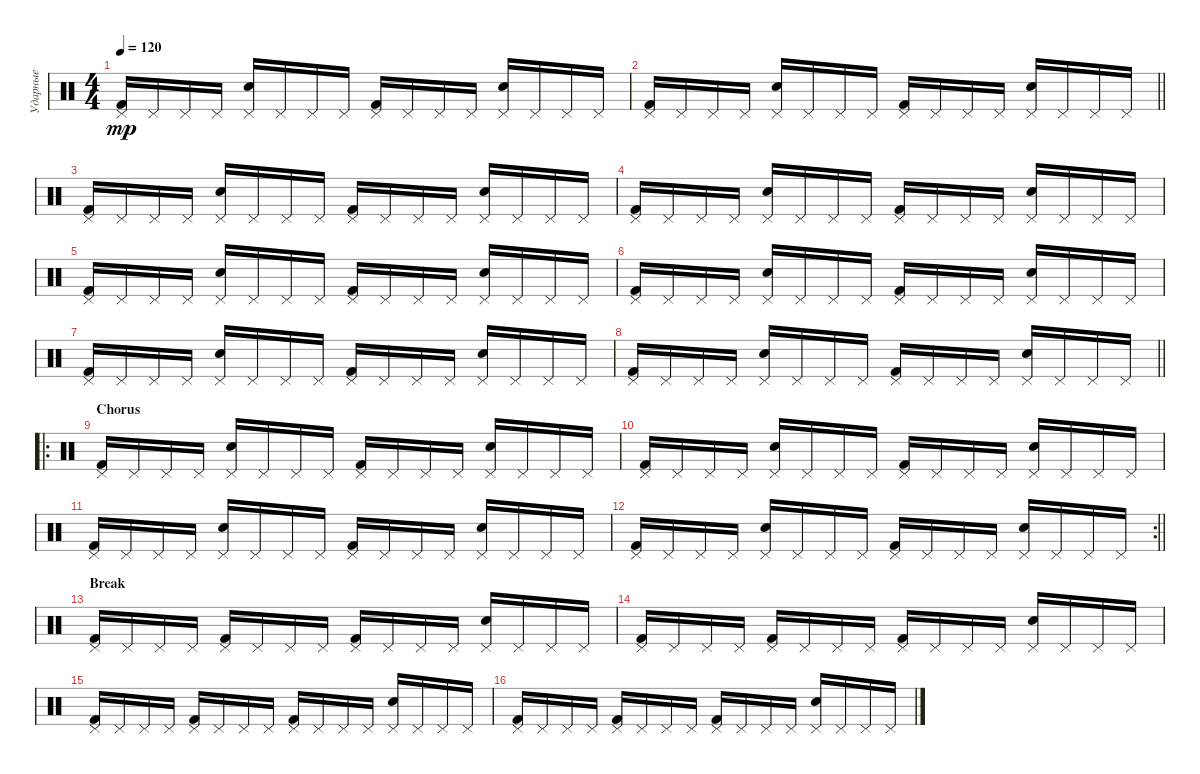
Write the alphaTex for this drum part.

\track ("Ударные" "Ударные") {instrument percussion}
\staff {score}
\articulation defaults
\ts (4 4)
\tempo 120
\clef neutral
\ks c
("Pedal Hi-Hat (hit)" "Kick (hit) 2").16{dy mp} "Pedal Hi-Hat (hit)".16 "Pedal Hi-Hat (hit)".16 "Pedal Hi-Hat (hit)".16 ("Pedal Hi-Hat (hit)" "Snare (hit) 2").16 "Pedal Hi-Hat (hit)".16 "Pedal Hi-Hat (hit)".16 "Pedal Hi-Hat (hit)".16 ("Pedal Hi-Hat (hit)" "Kick (hit) 2").16 "Pedal Hi-Hat (hit)".16 "Pedal Hi-Hat (hit)".16 "Pedal Hi-Hat (hit)".16 ("Pedal Hi-Hat (hit)" "Snare (hit) 2").16 "Pedal Hi-Hat (hit)".16 "Pedal Hi-Hat (hit)".16 "Pedal Hi-Hat (hit)".16 |
\barLineRight lightlight
("Pedal Hi-Hat (hit)" "Kick (hit) 2").16 "Pedal Hi-Hat (hit)".16 "Pedal Hi-Hat (hit)".16 "Pedal Hi-Hat (hit)".16 ("Pedal Hi-Hat (hit)" "Snare (hit) 2").16 "Pedal Hi-Hat (hit)".16 "Pedal Hi-Hat (hit)".16 "Pedal Hi-Hat (hit)".16 ("Pedal Hi-Hat (hit)" "Kick (hit) 2").16 "Pedal Hi-Hat (hit)".16 "Pedal Hi-Hat (hit)".16 "Pedal Hi-Hat (hit)".16 ("Pedal Hi-Hat (hit)" "Snare (hit) 2").16 "Pedal Hi-Hat (hit)".16 "Pedal Hi-Hat (hit)".16 "Pedal Hi-Hat (hit)".16 |
("Pedal Hi-Hat (hit)" "Kick (hit) 2").16 "Pedal Hi-Hat (hit)".16 "Pedal Hi-Hat (hit)".16 "Pedal Hi-Hat (hit)".16 ("Pedal Hi-Hat (hit)" "Snare (hit) 2").16 "Pedal Hi-Hat (hit)".16 "Pedal Hi-Hat (hit)".16 "Pedal Hi-Hat (hit)".16 ("Pedal Hi-Hat (hit)" "Kick (hit) 2").16 "Pedal Hi-Hat (hit)".16 "Pedal Hi-Hat (hit)".16 "Pedal Hi-Hat (hit)".16 ("Pedal Hi-Hat (hit)" "Snare (hit) 2").16 "Pedal Hi-Hat (hit)".16 "Pedal Hi-Hat (hit)".16 "Pedal Hi-Hat (hit)".16 |
("Pedal Hi-Hat (hit)" "Kick (hit) 2").16 "Pedal Hi-Hat (hit)".16 "Pedal Hi-Hat (hit)".16 "Pedal Hi-Hat (hit)".16 ("Pedal Hi-Hat (hit)" "Snare (hit) 2").16 "Pedal Hi-Hat (hit)".16 "Pedal Hi-Hat (hit)".16 "Pedal Hi-Hat (hit)".16 ("Pedal Hi-Hat (hit)" "Kick (hit) 2").16 "Pedal Hi-Hat (hit)".16 "Pedal Hi-Hat (hit)".16 "Pedal Hi-Hat (hit)".16 ("Pedal Hi-Hat (hit)" "Snare (hit) 2").16 "Pedal Hi-Hat (hit)".16 "Pedal Hi-Hat (hit)".16 "Pedal Hi-Hat (hit)".16 |
("Pedal Hi-Hat (hit)" "Kick (hit) 2").16 "Pedal Hi-Hat (hit)".16 "Pedal Hi-Hat (hit)".16 "Pedal Hi-Hat (hit)".16 ("Pedal Hi-Hat (hit)" "Snare (hit) 2").16 "Pedal Hi-Hat (hit)".16 "Pedal Hi-Hat (hit)".16 "Pedal Hi-Hat (hit)".16 ("Pedal Hi-Hat (hit)" "Kick (hit) 2").16 "Pedal Hi-Hat (hit)".16 "Pedal Hi-Hat (hit)".16 "Pedal Hi-Hat (hit)".16 ("Pedal Hi-Hat (hit)" "Snare (hit) 2").16 "Pedal Hi-Hat (hit)".16 "Pedal Hi-Hat (hit)".16 "Pedal Hi-Hat (hit)".16 |
("Pedal Hi-Hat (hit)" "Kick (hit) 2").16 "Pedal Hi-Hat (hit)".16 "Pedal Hi-Hat (hit)".16 "Pedal Hi-Hat (hit)".16 ("Pedal Hi-Hat (hit)" "Snare (hit) 2").16 "Pedal Hi-Hat (hit)".16 "Pedal Hi-Hat (hit)".16 "Pedal Hi-Hat (hit)".16 ("Pedal Hi-Hat (hit)" "Kick (hit) 2").16 "Pedal Hi-Hat (hit)".16 "Pedal Hi-Hat (hit)".16 "Pedal Hi-Hat (hit)".16 ("Pedal Hi-Hat (hit)" "Snare (hit) 2").16 "Pedal Hi-Hat (hit)".16 "Pedal Hi-Hat (hit)".16 "Pedal Hi-Hat (hit)".16 |
("Pedal Hi-Hat (hit)" "Kick (hit) 2").16 "Pedal Hi-Hat (hit)".16 "Pedal Hi-Hat (hit)".16 "Pedal Hi-Hat (hit)".16 ("Pedal Hi-Hat (hit)" "Snare (hit) 2").16 "Pedal Hi-Hat (hit)".16 "Pedal Hi-Hat (hit)".16 "Pedal Hi-Hat (hit)".16 ("Pedal Hi-Hat (hit)" "Kick (hit) 2").16 "Pedal Hi-Hat (hit)".16 "Pedal Hi-Hat (hit)".16 "Pedal Hi-Hat (hit)".16 ("Pedal Hi-Hat (hit)" "Snare (hit) 2").16 "Pedal Hi-Hat (hit)".16 "Pedal Hi-Hat (hit)".16 "Pedal Hi-Hat (hit)".16 |
\barLineRight lightlight
("Pedal Hi-Hat (hit)" "Kick (hit) 2").16 "Pedal Hi-Hat (hit)".16 "Pedal Hi-Hat (hit)".16 "Pedal Hi-Hat (hit)".16 ("Pedal Hi-Hat (hit)" "Snare (hit) 2").16 "Pedal Hi-Hat (hit)".16 "Pedal Hi-Hat (hit)".16 "Pedal Hi-Hat (hit)".16 ("Pedal Hi-Hat (hit)" "Kick (hit) 2").16 "Pedal Hi-Hat (hit)".16 "Pedal Hi-Hat (hit)".16 "Pedal Hi-Hat (hit)".16 ("Pedal Hi-Hat (hit)" "Snare (hit) 2").16 "Pedal Hi-Hat (hit)".16 "Pedal Hi-Hat (hit)".16 "Pedal Hi-Hat (hit)".16 |
\ro
\section ("" "Chorus")
("Pedal Hi-Hat (hit)" "Kick (hit) 2").16 "Pedal Hi-Hat (hit)".16 "Pedal Hi-Hat (hit)".16 "Pedal Hi-Hat (hit)".16 ("Pedal Hi-Hat (hit)" "Snare (hit) 2").16 "Pedal Hi-Hat (hit)".16 "Pedal Hi-Hat (hit)".16 "Pedal Hi-Hat (hit)".16 ("Pedal Hi-Hat (hit)" "Kick (hit) 2").16 "Pedal Hi-Hat (hit)".16 "Pedal Hi-Hat (hit)".16 "Pedal Hi-Hat (hit)".16 ("Pedal Hi-Hat (hit)" "Snare (hit) 2").16 "Pedal Hi-Hat (hit)".16 "Pedal Hi-Hat (hit)".16 "Pedal Hi-Hat (hit)".16 |
("Pedal Hi-Hat (hit)" "Kick (hit) 2").16 "Pedal Hi-Hat (hit)".16 "Pedal Hi-Hat (hit)".16 "Pedal Hi-Hat (hit)".16 ("Pedal Hi-Hat (hit)" "Snare (hit) 2").16 "Pedal Hi-Hat (hit)".16 "Pedal Hi-Hat (hit)".16 "Pedal Hi-Hat (hit)".16 ("Pedal Hi-Hat (hit)" "Kick (hit) 2").16 "Pedal Hi-Hat (hit)".16 "Pedal Hi-Hat (hit)".16 "Pedal Hi-Hat (hit)".16 ("Pedal Hi-Hat (hit)" "Snare (hit) 2").16 "Pedal Hi-Hat (hit)".16 "Pedal Hi-Hat (hit)".16 "Pedal Hi-Hat (hit)".16 |
("Pedal Hi-Hat (hit)" "Kick (hit) 2").16 "Pedal Hi-Hat (hit)".16 "Pedal Hi-Hat (hit)".16 "Pedal Hi-Hat (hit)".16 ("Pedal Hi-Hat (hit)" "Snare (hit) 2").16 "Pedal Hi-Hat (hit)".16 "Pedal Hi-Hat (hit)".16 "Pedal Hi-Hat (hit)".16 ("Pedal Hi-Hat (hit)" "Kick (hit) 2").16 "Pedal Hi-Hat (hit)".16 "Pedal Hi-Hat (hit)".16 "Pedal Hi-Hat (hit)".16 ("Pedal Hi-Hat (hit)" "Snare (hit) 2").16 "Pedal Hi-Hat (hit)".16 "Pedal Hi-Hat (hit)".16 "Pedal Hi-Hat (hit)".16 |
\rc 2
\barLineRight lightlight
("Pedal Hi-Hat (hit)" "Kick (hit) 2").16 "Pedal Hi-Hat (hit)".16 "Pedal Hi-Hat (hit)".16 "Pedal Hi-Hat (hit)".16 ("Pedal Hi-Hat (hit)" "Snare (hit) 2").16 "Pedal Hi-Hat (hit)".16 "Pedal Hi-Hat (hit)".16 "Pedal Hi-Hat (hit)".16 ("Pedal Hi-Hat (hit)" "Kick (hit) 2").16 "Pedal Hi-Hat (hit)".16 "Pedal Hi-Hat (hit)".16 "Pedal Hi-Hat (hit)".16 ("Pedal Hi-Hat (hit)" "Snare (hit) 2").16 "Pedal Hi-Hat (hit)".16 "Pedal Hi-Hat (hit)".16 "Pedal Hi-Hat (hit)".16 |
\section ("" "Break")
("Pedal Hi-Hat (hit)" "Kick (hit) 2").16 "Pedal Hi-Hat (hit)".16 "Pedal Hi-Hat (hit)".16 "Pedal Hi-Hat (hit)".16 ("Pedal Hi-Hat (hit)" "Kick (hit) 2").16 "Pedal Hi-Hat (hit)".16 "Pedal Hi-Hat (hit)".16 "Pedal Hi-Hat (hit)".16 ("Pedal Hi-Hat (hit)" "Kick (hit) 2").16 "Pedal Hi-Hat (hit)".16 "Pedal Hi-Hat (hit)".16 "Pedal Hi-Hat (hit)".16 ("Pedal Hi-Hat (hit)" "Snare (hit) 2").16 "Pedal Hi-Hat (hit)".16 "Pedal Hi-Hat (hit)".16 "Pedal Hi-Hat (hit)".16 |
("Pedal Hi-Hat (hit)" "Kick (hit) 2").16 "Pedal Hi-Hat (hit)".16 "Pedal Hi-Hat (hit)".16 "Pedal Hi-Hat (hit)".16 ("Pedal Hi-Hat (hit)" "Kick (hit) 2").16 "Pedal Hi-Hat (hit)".16 "Pedal Hi-Hat (hit)".16 "Pedal Hi-Hat (hit)".16 ("Pedal Hi-Hat (hit)" "Kick (hit) 2").16 "Pedal Hi-Hat (hit)".16 "Pedal Hi-Hat (hit)".16 "Pedal Hi-Hat (hit)".16 ("Pedal Hi-Hat (hit)" "Snare (hit) 2").16 "Pedal Hi-Hat (hit)".16 "Pedal Hi-Hat (hit)".16 "Pedal Hi-Hat (hit)".16 |
("Pedal Hi-Hat (hit)" "Kick (hit) 2").16 "Pedal Hi-Hat (hit)".16 "Pedal Hi-Hat (hit)".16 "Pedal Hi-Hat (hit)".16 ("Pedal Hi-Hat (hit)" "Kick (hit) 2").16 "Pedal Hi-Hat (hit)".16 "Pedal Hi-Hat (hit)".16 "Pedal Hi-Hat (hit)".16 ("Pedal Hi-Hat (hit)" "Kick (hit) 2").16 "Pedal Hi-Hat (hit)".16 "Pedal Hi-Hat (hit)".16 "Pedal Hi-Hat (hit)".16 ("Pedal Hi-Hat (hit)" "Snare (hit) 2").16 "Pedal Hi-Hat (hit)".16 "Pedal Hi-Hat (hit)".16 "Pedal Hi-Hat (hit)".16 |
("Pedal Hi-Hat (hit)" "Kick (hit) 2").16 "Pedal Hi-Hat (hit)".16 "Pedal Hi-Hat (hit)".16 "Pedal Hi-Hat (hit)".16 ("Pedal Hi-Hat (hit)" "Kick (hit) 2").16 "Pedal Hi-Hat (hit)".16 "Pedal Hi-Hat (hit)".16 "Pedal Hi-Hat (hit)".16 ("Pedal Hi-Hat (hit)" "Kick (hit) 2").16 "Pedal Hi-Hat (hit)".16 "Pedal Hi-Hat (hit)".16 "Pedal Hi-Hat (hit)".16 ("Pedal Hi-Hat (hit)" "Snare (hit) 2").16 "Pedal Hi-Hat (hit)".16 "Pedal Hi-Hat (hit)".16 "Pedal Hi-Hat (hit)".16
